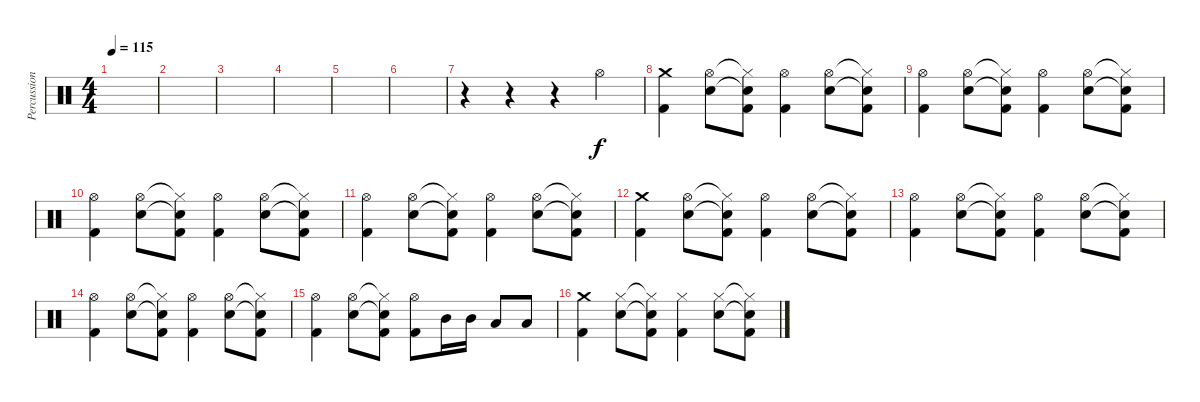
\track ("Percussion" "Percussion") {instrument percussion}
\staff {score}
\articulation defaults
\ts (4 4)
\tempo 115
\clef neutral
\ks c
|
|
|
|
|
|
r.4 r.4 r.4 "Hi-Hat (open)".4 |
("Crash medium (hit)" "Kick (hit) 2").4 ("Hi-Hat (open)" "Snare (hit) 2").8 ("Hi-Hat (closed)"{t} "Snare (hit) 2"{t} "Kick (hit) 2").8 ("Hi-Hat (open)" "Kick (hit) 2").4 ("Hi-Hat (open)" "Snare (hit) 2").8 ("Hi-Hat (closed)"{t} "Snare (hit) 2"{t} "Kick (hit) 2").8 |
("Hi-Hat (open)" "Kick (hit) 2").4 ("Hi-Hat (open)" "Snare (hit) 2").8 ("Hi-Hat (closed)"{t} "Snare (hit) 2"{t} "Kick (hit) 2").8 ("Hi-Hat (open)" "Kick (hit) 2").4 ("Hi-Hat (open)" "Snare (hit) 2").8 ("Hi-Hat (closed)"{t} "Snare (hit) 2"{t} "Kick (hit) 2").8 |
("Hi-Hat (open)" "Kick (hit) 2").4 ("Hi-Hat (open)" "Snare (hit) 2").8 ("Hi-Hat (closed)"{t} "Snare (hit) 2"{t} "Kick (hit) 2").8 ("Hi-Hat (open)" "Kick (hit) 2").4 ("Hi-Hat (open)" "Snare (hit) 2").8 ("Hi-Hat (closed)"{t} "Snare (hit) 2"{t} "Kick (hit) 2").8 |
("Hi-Hat (open)" "Kick (hit) 2").4 ("Hi-Hat (open)" "Snare (hit) 2").8 ("Hi-Hat (closed)"{t} "Snare (hit) 2"{t} "Kick (hit) 2").8 ("Hi-Hat (open)" "Kick (hit) 2").4 ("Hi-Hat (open)" "Snare (hit) 2").8 ("Hi-Hat (closed)"{t} "Snare (hit) 2"{t} "Kick (hit) 2").8 |
("Crash medium (hit)" "Kick (hit) 2").4 ("Hi-Hat (open)" "Snare (hit) 2").8 ("Hi-Hat (closed)"{t} "Snare (hit) 2"{t} "Kick (hit) 2").8 ("Hi-Hat (open)" "Kick (hit) 2").4 ("Hi-Hat (open)" "Snare (hit) 2").8 ("Hi-Hat (closed)"{t} "Snare (hit) 2"{t} "Kick (hit) 2").8 |
("Hi-Hat (open)" "Kick (hit) 2").4 ("Hi-Hat (open)" "Snare (hit) 2").8 ("Hi-Hat (closed)"{t} "Snare (hit) 2"{t} "Kick (hit) 2").8 ("Hi-Hat (open)" "Kick (hit) 2").4 ("Hi-Hat (open)" "Snare (hit) 2").8 ("Hi-Hat (closed)"{t} "Snare (hit) 2"{t} "Kick (hit) 2").8 |
("Hi-Hat (open)" "Kick (hit) 2").4 ("Hi-Hat (open)" "Snare (hit) 2").8 ("Hi-Hat (closed)"{t} "Snare (hit) 2"{t} "Kick (hit) 2").8 ("Hi-Hat (open)" "Kick (hit) 2").4 ("Hi-Hat (open)" "Snare (hit) 2").8 ("Hi-Hat (closed)"{t} "Snare (hit) 2"{t} "Kick (hit) 2").8 |
("Hi-Hat (open)" "Kick (hit) 2").4 ("Hi-Hat (open)" "Snare (hit) 2").8 ("Hi-Hat (closed)"{t} "Snare (hit) 2"{t} "Kick (hit) 2").8 ("Hi-Hat (open)" "Kick (hit) 2").8 "Mid Tom (hit)".16 "Mid Tom (hit)".16 "Low Tom (hit)".8 "Low Tom (hit)".8 |
("Crash medium (hit)" "Kick (hit) 2").4 ("Hi-Hat (closed)" "Snare (hit) 2").8 ("Hi-Hat (closed)"{t} "Snare (hit) 2"{t} "Kick (hit) 2").8 ("Hi-Hat (closed)" "Kick (hit) 2").4 ("Hi-Hat (closed)" "Snare (hit) 2").8 ("Hi-Hat (closed)"{t} "Snare (hit) 2"{t} "Kick (hit) 2").8
